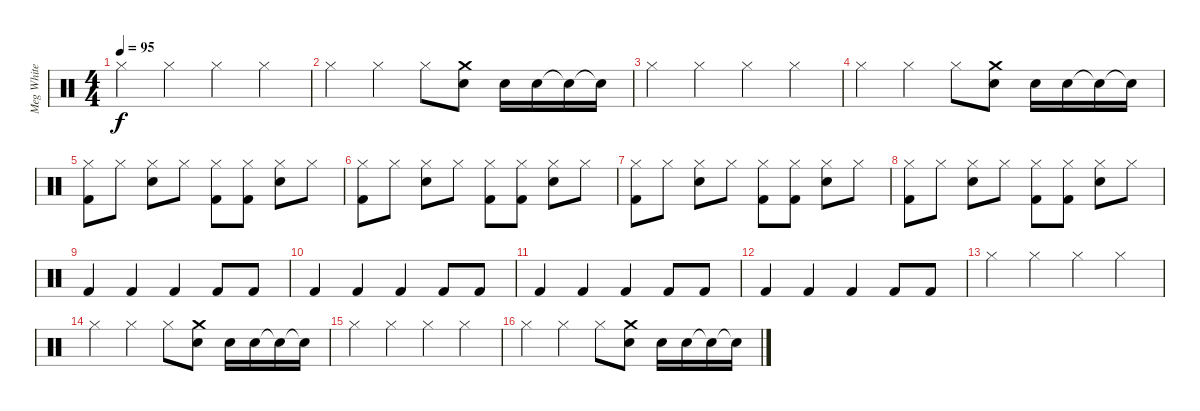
\track ("Meg White - Drums" "Meg White ") {instrument percussion}
\staff {score}
\articulation defaults
\ts (4 4)
\tempo 95
\clef neutral
\ks c "Hi-Hat (closed)".4{dy f} "Hi-Hat (closed)".4 "Hi-Hat (closed)".4 "Hi-Hat (closed)".4
|
"Hi-Hat (closed)".4 "Hi-Hat (closed)".4 "Hi-Hat (closed)".8 ("Crash medium (hit)" "Snare (hit) 2").8 "Snare (hit) 2".16 "Snare (hit) 2".16 "Snare (hit)"{t}.16 "Snare (hit)"{t}.16 |
"Hi-Hat (closed)".4 "Hi-Hat (closed)".4 "Hi-Hat (closed)".4 "Hi-Hat (closed)".4 |
"Hi-Hat (closed)".4 "Hi-Hat (closed)".4 "Hi-Hat (closed)".8 ("Crash medium (hit)" "Snare (hit) 2").8 "Snare (hit) 2".16 "Snare (hit) 2".16 "Snare (hit)"{t}.16 "Snare (hit)"{t}.16 |
("Hi-Hat (closed)" "Kick (hit) 2").8 "Hi-Hat (closed)".8 ("Snare (hit) 2" "Hi-Hat (closed)").8 "Hi-Hat (closed)".8 ("Hi-Hat (closed)" "Kick (hit) 2").8 ("Hi-Hat (closed)" "Kick (hit) 2").8 ("Snare (hit) 2" "Hi-Hat (closed)").8 "Hi-Hat (closed)".8 |
("Hi-Hat (closed)" "Kick (hit) 2").8 "Hi-Hat (closed)".8 ("Snare (hit) 2" "Hi-Hat (closed)").8 "Hi-Hat (closed)".8 ("Hi-Hat (closed)" "Kick (hit) 2").8 ("Hi-Hat (closed)" "Kick (hit) 2").8 ("Snare (hit) 2" "Hi-Hat (closed)").8 "Hi-Hat (closed)".8 |
("Hi-Hat (closed)" "Kick (hit) 2").8 "Hi-Hat (closed)".8 ("Snare (hit) 2" "Hi-Hat (closed)").8 "Hi-Hat (closed)".8 ("Hi-Hat (closed)" "Kick (hit) 2").8 ("Hi-Hat (closed)" "Kick (hit) 2").8 ("Snare (hit) 2" "Hi-Hat (closed)").8 "Hi-Hat (closed)".8 |
("Hi-Hat (closed)" "Kick (hit) 2").8 "Hi-Hat (closed)".8 ("Snare (hit) 2" "Hi-Hat (closed)").8 "Hi-Hat (closed)".8 ("Hi-Hat (closed)" "Kick (hit) 2").8 ("Hi-Hat (closed)" "Kick (hit) 2").8 ("Snare (hit) 2" "Hi-Hat (closed)").8 "Hi-Hat (closed)".8 |
"Kick (hit) 2".4 "Kick (hit) 2".4 "Kick (hit) 2".4 "Kick (hit) 2".8 "Kick (hit) 2".8 |
"Kick (hit) 2".4 "Kick (hit) 2".4 "Kick (hit) 2".4 "Kick (hit) 2".8 "Kick (hit) 2".8 |
"Kick (hit) 2".4 "Kick (hit) 2".4 "Kick (hit) 2".4 "Kick (hit) 2".8 "Kick (hit) 2".8 |
"Kick (hit) 2".4 "Kick (hit) 2".4 "Kick (hit) 2".4 "Kick (hit) 2".8 "Kick (hit) 2".8 |
"Hi-Hat (closed)".4 "Hi-Hat (closed)".4 "Hi-Hat (closed)".4 "Hi-Hat (closed)".4 |
"Hi-Hat (closed)".4 "Hi-Hat (closed)".4 "Hi-Hat (closed)".8 ("Crash medium (hit)" "Snare (hit) 2").8 "Snare (hit) 2".16 "Snare (hit) 2".16 "Snare (hit)"{t}.16 "Snare (hit)"{t}.16 |
"Hi-Hat (closed)".4 "Hi-Hat (closed)".4 "Hi-Hat (closed)".4 "Hi-Hat (closed)".4 |
"Hi-Hat (closed)".4 "Hi-Hat (closed)".4 "Hi-Hat (closed)".8 ("Crash medium (hit)" "Snare (hit) 2").8 "Snare (hit) 2".16 "Snare (hit) 2".16 "Snare (hit)"{t}.16 "Snare (hit)"{t}.16
